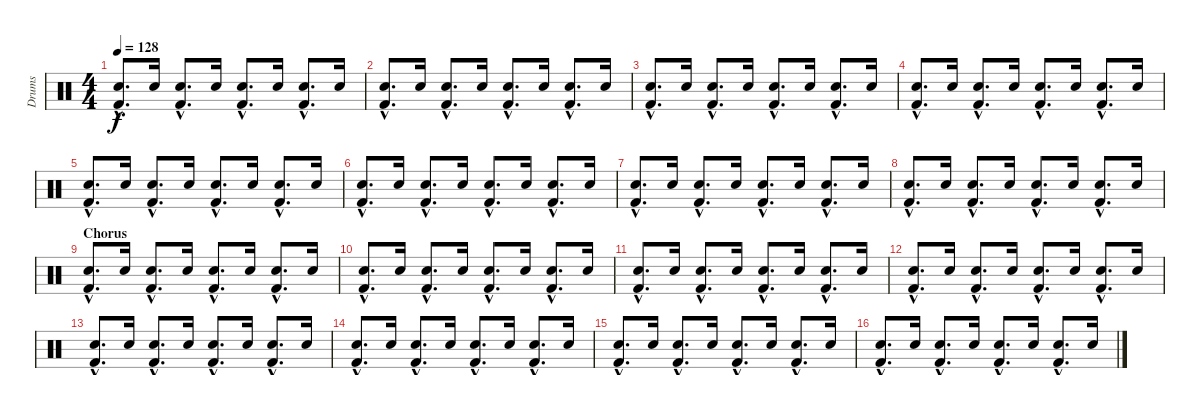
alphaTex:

\track ("Drums" "Drums") {instrument percussion}
\staff {score}
\articulation defaults
\ts (4 4)
\tempo 128
\clef neutral
\ks c
("Snare (hit) 2"{hac} "Kick (hit) 2"{hac}).8{d dy f} "Snare (hit) 2".16 ("Snare (hit) 2"{hac} "Kick (hit) 2"{hac}).8{d} "Snare (hit) 2".16 ("Snare (hit) 2"{hac} "Kick (hit) 2"{hac}).8{d} "Snare (hit) 2".16 ("Snare (hit) 2"{hac} "Kick (hit) 2"{hac}).8{d} "Snare (hit) 2".16 |
("Snare (hit) 2"{hac} "Kick (hit) 2"{hac}).8{d} "Snare (hit) 2".16 ("Snare (hit) 2"{hac} "Kick (hit) 2"{hac}).8{d} "Snare (hit) 2".16 ("Snare (hit) 2"{hac} "Kick (hit) 2"{hac}).8{d} "Snare (hit) 2".16 ("Snare (hit) 2"{hac} "Kick (hit) 2"{hac}).8{d} "Snare (hit) 2".16 |
("Snare (hit) 2"{hac} "Kick (hit) 2"{hac}).8{d} "Snare (hit) 2".16 ("Snare (hit) 2"{hac} "Kick (hit) 2"{hac}).8{d} "Snare (hit) 2".16 ("Snare (hit) 2"{hac} "Kick (hit) 2"{hac}).8{d} "Snare (hit) 2".16 ("Snare (hit) 2"{hac} "Kick (hit) 2"{hac}).8{d} "Snare (hit) 2".16 |
("Snare (hit) 2"{hac} "Kick (hit) 2"{hac}).8{d} "Snare (hit) 2".16 ("Snare (hit) 2"{hac} "Kick (hit) 2"{hac}).8{d} "Snare (hit) 2".16 ("Snare (hit) 2"{hac} "Kick (hit) 2"{hac}).8{d} "Snare (hit) 2".16 ("Snare (hit) 2"{hac} "Kick (hit) 2"{hac}).8{d} "Snare (hit) 2".16 |
("Snare (hit) 2"{hac} "Kick (hit) 2"{hac}).8{d} "Snare (hit) 2".16 ("Snare (hit) 2"{hac} "Kick (hit) 2"{hac}).8{d} "Snare (hit) 2".16 ("Snare (hit) 2"{hac} "Kick (hit) 2"{hac}).8{d} "Snare (hit) 2".16 ("Snare (hit) 2"{hac} "Kick (hit) 2"{hac}).8{d} "Snare (hit) 2".16 |
("Snare (hit) 2"{hac} "Kick (hit) 2"{hac}).8{d} "Snare (hit) 2".16 ("Snare (hit) 2"{hac} "Kick (hit) 2"{hac}).8{d} "Snare (hit) 2".16 ("Snare (hit) 2"{hac} "Kick (hit) 2"{hac}).8{d} "Snare (hit) 2".16 ("Snare (hit) 2"{hac} "Kick (hit) 2"{hac}).8{d} "Snare (hit) 2".16 |
("Snare (hit) 2"{hac} "Kick (hit) 2"{hac}).8{d} "Snare (hit) 2".16 ("Snare (hit) 2"{hac} "Kick (hit) 2"{hac}).8{d} "Snare (hit) 2".16 ("Snare (hit) 2"{hac} "Kick (hit) 2"{hac}).8{d} "Snare (hit) 2".16 ("Snare (hit) 2"{hac} "Kick (hit) 2"{hac}).8{d} "Snare (hit) 2".16 |
("Snare (hit) 2"{hac} "Kick (hit) 2"{hac}).8{d} "Snare (hit) 2".16 ("Snare (hit) 2"{hac} "Kick (hit) 2"{hac}).8{d} "Snare (hit) 2".16 ("Snare (hit) 2"{hac} "Kick (hit) 2"{hac}).8{d} "Snare (hit) 2".16 ("Snare (hit) 2"{hac} "Kick (hit) 2"{hac}).8{d} "Snare (hit) 2".16 |
\section ("" "Chorus")
("Snare (hit) 2"{hac} "Kick (hit) 2"{hac}).8{d} "Snare (hit) 2".16 ("Snare (hit) 2"{hac} "Kick (hit) 2"{hac}).8{d} "Snare (hit) 2".16 ("Snare (hit) 2"{hac} "Kick (hit) 2"{hac}).8{d} "Snare (hit) 2".16 ("Snare (hit) 2"{hac} "Kick (hit) 2"{hac}).8{d} "Snare (hit) 2".16 |
("Snare (hit) 2"{hac} "Kick (hit) 2"{hac}).8{d} "Snare (hit) 2".16 ("Snare (hit) 2"{hac} "Kick (hit) 2"{hac}).8{d} "Snare (hit) 2".16 ("Snare (hit) 2"{hac} "Kick (hit) 2"{hac}).8{d} "Snare (hit) 2".16 ("Snare (hit) 2"{hac} "Kick (hit) 2"{hac}).8{d} "Snare (hit) 2".16 |
("Snare (hit) 2"{hac} "Kick (hit) 2"{hac}).8{d} "Snare (hit) 2".16 ("Snare (hit) 2"{hac} "Kick (hit) 2"{hac}).8{d} "Snare (hit) 2".16 ("Snare (hit) 2"{hac} "Kick (hit) 2"{hac}).8{d} "Snare (hit) 2".16 ("Snare (hit) 2"{hac} "Kick (hit) 2"{hac}).8{d} "Snare (hit) 2".16 |
("Snare (hit) 2"{hac} "Kick (hit) 2"{hac}).8{d} "Snare (hit) 2".16 ("Snare (hit) 2"{hac} "Kick (hit) 2"{hac}).8{d} "Snare (hit) 2".16 ("Snare (hit) 2"{hac} "Kick (hit) 2"{hac}).8{d} "Snare (hit) 2".16 ("Snare (hit) 2"{hac} "Kick (hit) 2"{hac}).8{d} "Snare (hit) 2".16 |
("Snare (hit) 2"{hac} "Kick (hit) 2"{hac}).8{d} "Snare (hit) 2".16 ("Snare (hit) 2"{hac} "Kick (hit) 2"{hac}).8{d} "Snare (hit) 2".16 ("Snare (hit) 2"{hac} "Kick (hit) 2"{hac}).8{d} "Snare (hit) 2".16 ("Snare (hit) 2"{hac} "Kick (hit) 2"{hac}).8{d} "Snare (hit) 2".16 |
("Snare (hit) 2"{hac} "Kick (hit) 2"{hac}).8{d} "Snare (hit) 2".16 ("Snare (hit) 2"{hac} "Kick (hit) 2"{hac}).8{d} "Snare (hit) 2".16 ("Snare (hit) 2"{hac} "Kick (hit) 2"{hac}).8{d} "Snare (hit) 2".16 ("Snare (hit) 2"{hac} "Kick (hit) 2"{hac}).8{d} "Snare (hit) 2".16 |
("Snare (hit) 2"{hac} "Kick (hit) 2"{hac}).8{d} "Snare (hit) 2".16 ("Snare (hit) 2"{hac} "Kick (hit) 2"{hac}).8{d} "Snare (hit) 2".16 ("Snare (hit) 2"{hac} "Kick (hit) 2"{hac}).8{d} "Snare (hit) 2".16 ("Snare (hit) 2"{hac} "Kick (hit) 2"{hac}).8{d} "Snare (hit) 2".16 |
("Snare (hit) 2"{hac} "Kick (hit) 2"{hac}).8{d} "Snare (hit) 2".16 ("Snare (hit) 2"{hac} "Kick (hit) 2"{hac}).8{d} "Snare (hit) 2".16 ("Snare (hit) 2"{hac} "Kick (hit) 2"{hac}).8{d} "Snare (hit) 2".16 ("Snare (hit) 2"{hac} "Kick (hit) 2"{hac}).8{d} "Snare (hit) 2".16
